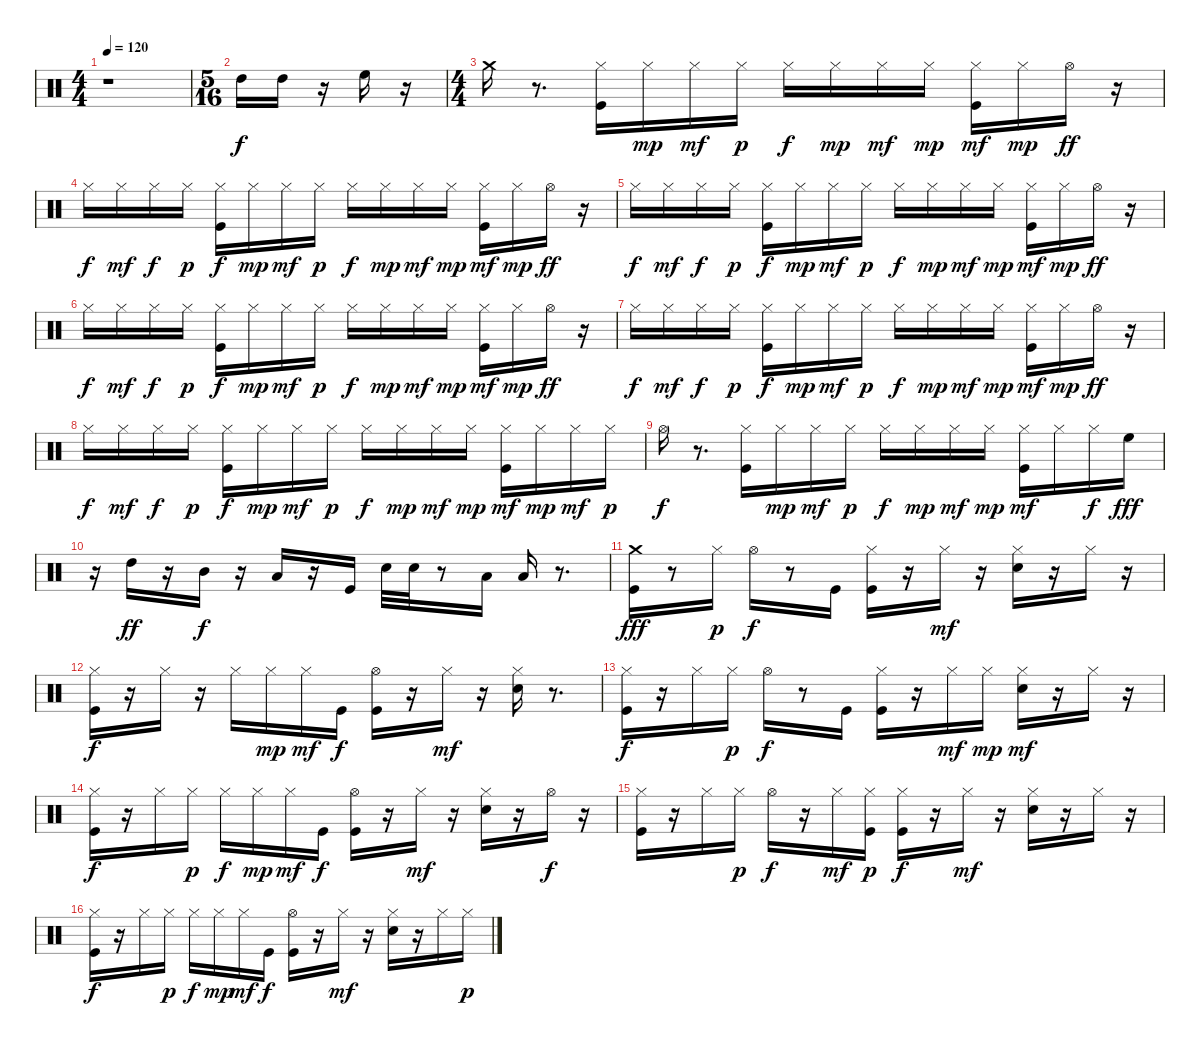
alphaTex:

\track "" {instrument percussion}
\staff {score}
\articulation defaults
\ts (4 4)
\tempo 120
\clef neutral
\ks c
r.1{dy f} |
\ts (5 16)
"High Tom (hit)".16 "High Tom (hit)".16 r.16 "High Floor Tom (hit)".16 r.16 |
\ts (4 4)
"Crash medium (hit)".16 r.8{d} ("Kick (hit)" "Hi-Hat (closed)").16 "Hi-Hat (closed)".16{dy mp} "Hi-Hat (closed)".16{dy mf} "Hi-Hat (closed)".16{dy p} "Hi-Hat (closed)".16{dy f} "Hi-Hat (closed)".16{dy mp} "Hi-Hat (closed)".16{dy mf} "Hi-Hat (closed)".16{dy mp} ("Kick (hit)" "Hi-Hat (closed)").16{dy mf} "Hi-Hat (closed)".16{dy mp} "Hi-Hat (open)".16{dy ff} r.16 |
"Hi-Hat (closed)".16{dy f} "Hi-Hat (closed)".16{dy mf} "Hi-Hat (closed)".16{dy f} "Hi-Hat (closed)".16{dy p} ("Kick (hit)" "Hi-Hat (closed)").16{dy f} "Hi-Hat (closed)".16{dy mp} "Hi-Hat (closed)".16{dy mf} "Hi-Hat (closed)".16{dy p} "Hi-Hat (closed)".16{dy f} "Hi-Hat (closed)".16{dy mp} "Hi-Hat (closed)".16{dy mf} "Hi-Hat (closed)".16{dy mp} ("Kick (hit)" "Hi-Hat (closed)").16{dy mf} "Hi-Hat (closed)".16{dy mp} "Hi-Hat (open)".16{dy ff} r.16 |
"Hi-Hat (closed)".16{dy f} "Hi-Hat (closed)".16{dy mf} "Hi-Hat (closed)".16{dy f} "Hi-Hat (closed)".16{dy p} ("Kick (hit)" "Hi-Hat (closed)").16{dy f} "Hi-Hat (closed)".16{dy mp} "Hi-Hat (closed)".16{dy mf} "Hi-Hat (closed)".16{dy p} "Hi-Hat (closed)".16{dy f} "Hi-Hat (closed)".16{dy mp} "Hi-Hat (closed)".16{dy mf} "Hi-Hat (closed)".16{dy mp} ("Kick (hit)" "Hi-Hat (closed)").16{dy mf} "Hi-Hat (closed)".16{dy mp} "Hi-Hat (open)".16{dy ff} r.16 |
"Hi-Hat (closed)".16{dy f} "Hi-Hat (closed)".16{dy mf} "Hi-Hat (closed)".16{dy f} "Hi-Hat (closed)".16{dy p} ("Kick (hit)" "Hi-Hat (closed)").16{dy f} "Hi-Hat (closed)".16{dy mp} "Hi-Hat (closed)".16{dy mf} "Hi-Hat (closed)".16{dy p} "Hi-Hat (closed)".16{dy f} "Hi-Hat (closed)".16{dy mp} "Hi-Hat (closed)".16{dy mf} "Hi-Hat (closed)".16{dy mp} ("Kick (hit)" "Hi-Hat (closed)").16{dy mf} "Hi-Hat (closed)".16{dy mp} "Hi-Hat (open)".16{dy ff} r.16 |
"Hi-Hat (closed)".16{dy f} "Hi-Hat (closed)".16{dy mf} "Hi-Hat (closed)".16{dy f} "Hi-Hat (closed)".16{dy p} ("Kick (hit)" "Hi-Hat (closed)").16{dy f} "Hi-Hat (closed)".16{dy mp} "Hi-Hat (closed)".16{dy mf} "Hi-Hat (closed)".16{dy p} "Hi-Hat (closed)".16{dy f} "Hi-Hat (closed)".16{dy mp} "Hi-Hat (closed)".16{dy mf} "Hi-Hat (closed)".16{dy mp} ("Kick (hit)" "Hi-Hat (closed)").16{dy mf} "Hi-Hat (closed)".16{dy mp} "Hi-Hat (open)".16{dy ff} r.16 |
"Hi-Hat (closed)".16{dy f} "Hi-Hat (closed)".16{dy mf} "Hi-Hat (closed)".16{dy f} "Hi-Hat (closed)".16{dy p} ("Kick (hit)" "Hi-Hat (closed)").16{dy f} "Hi-Hat (closed)".16{dy mp} "Hi-Hat (closed)".16{dy mf} "Hi-Hat (closed)".16{dy p} "Hi-Hat (closed)".16{dy f} "Hi-Hat (closed)".16{dy mp} "Hi-Hat (closed)".16{dy mf} "Hi-Hat (closed)".16{dy mp} ("Kick (hit)" "Hi-Hat (closed)").16{dy mf} "Hi-Hat (closed)".16{dy mp} "Hi-Hat (closed)".16{dy mf} "Hi-Hat (closed)".16{dy p} |
"Hi-Hat (open)".16{dy f} r.8{d} ("Kick (hit)" "Hi-Hat (closed)").16 "Hi-Hat (closed)".16{dy mp} "Hi-Hat (closed)".16{dy mf} "Hi-Hat (closed)".16{dy p} "Hi-Hat (closed)".16{dy f} "Hi-Hat (closed)".16{dy mp} "Hi-Hat (closed)".16{dy mf} "Hi-Hat (closed)".16{dy mp} ("Kick (hit)" "Hi-Hat (closed)").16{dy mf} "Hi-Hat (closed)".16 "Hi-Hat (closed)".16{dy f} "High Floor Tom (hit)".16{dy fff} |
r.16 "High Tom (hit)".16{dy ff} r.16 "Mid Tom (hit)".16{dy f} r.16 "Low Tom (hit)".16 r.16 "Kick (hit)".16 "Electric Snare (hit)".32 "Electric Snare (hit)".32 r.8 "Low Tom (hit)".16 "Low Tom (hit)".16 r.8{d} |
("Kick (hit)" "Crash medium (hit)").16{dy fff} r.8 "Hi-Hat (closed)".16{dy p} "Hi-Hat (open)".16{dy f} r.8 "Kick (hit)".16 ("Kick (hit)" "Hi-Hat (closed)").16 r.16 "Hi-Hat (closed)".16{dy mf} r.16 ("Electric Snare (hit)" "Hi-Hat (closed)").16 r.16 "Hi-Hat (closed)".16 r.16 |
("Kick (hit)" "Hi-Hat (closed)").16{dy f} r.16 "Hi-Hat (closed)".16 r.16 "Hi-Hat (closed)".16 "Hi-Hat (closed)".16{dy mp} "Hi-Hat (closed)".16{dy mf} "Kick (hit)".16{dy f} ("Kick (hit)" "Hi-Hat (open)").16 r.16 "Hi-Hat (closed)".16{dy mf} r.16 ("Electric Snare (hit)" "Hi-Hat (closed)").16 r.8{d} |
("Kick (hit)" "Hi-Hat (closed)").16{dy f} r.16 "Hi-Hat (closed)".16 "Hi-Hat (closed)".16{dy p} "Hi-Hat (open)".16{dy f} r.8 "Kick (hit)".16 ("Kick (hit)" "Hi-Hat (closed)").16 r.16 "Hi-Hat (closed)".16{dy mf} "Hi-Hat (closed)".16{dy mp} ("Electric Snare (hit)" "Hi-Hat (closed)").16{dy mf} r.16 "Hi-Hat (closed)".16 r.16 |
("Kick (hit)" "Hi-Hat (closed)").16{dy f} r.16 "Hi-Hat (closed)".16 "Hi-Hat (closed)".16{dy p} "Hi-Hat (closed)".16{dy f} "Hi-Hat (closed)".16{dy mp} "Hi-Hat (closed)".16{dy mf} "Kick (hit)".16{dy f} ("Kick (hit)" "Hi-Hat (open)").16 r.16 "Hi-Hat (closed)".16{dy mf} r.16 ("Electric Snare (hit)" "Hi-Hat (closed)").16 r.16 "Hi-Hat (open)".16{dy f} r.16 |
("Kick (hit)" "Hi-Hat (closed)").16 r.16 "Hi-Hat (closed)".16 "Hi-Hat (closed)".16{dy p} "Hi-Hat (open)".16{dy f} r.16 "Hi-Hat (closed)".16{dy mf} ("Kick (hit)" "Hi-Hat (closed)").16{dy p} ("Kick (hit)" "Hi-Hat (closed)").16{dy f} r.16 "Hi-Hat (closed)".16{dy mf} r.16 ("Electric Snare (hit)" "Hi-Hat (closed)").16 r.16 "Hi-Hat (closed)".16 r.16 |
("Kick (hit)" "Hi-Hat (closed)").16{dy f} r.16 "Hi-Hat (closed)".16 "Hi-Hat (closed)".16{dy p} "Hi-Hat (closed)".16{dy f} "Hi-Hat (closed)".16{dy mp} "Hi-Hat (closed)".16{dy mf} "Kick (hit)".16{dy f} ("Kick (hit)" "Hi-Hat (open)").16 r.16 "Hi-Hat (closed)".16{dy mf} r.16 ("Electric Snare (hit)" "Hi-Hat (closed)").16 r.16 "Hi-Hat (closed)".16 "Hi-Hat (closed)".16{dy p}
